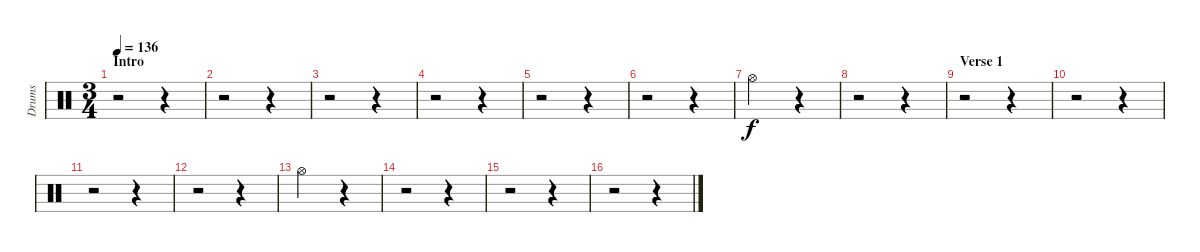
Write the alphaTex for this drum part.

\track ("Drums" "Drums") {instrument percussion}
\staff {score}
\articulation defaults
\ts (3 4)
\section ("" "Intro")
\tempo 136
\clef neutral
\ks c
r.2{dy f} r.4 |
r.2 r.4 |
r.2 r.4 |
r.2 r.4 |
r.2 r.4 |
r.2 r.4 |
"Hi-Hat (open)".2 r.4 |
r.2 r.4 |
\section ("" "Verse 1")
r.2 r.4 |
r.2 r.4 |
r.2 r.4 |
r.2 r.4 |
"Hi-Hat (open)".2 r.4 |
r.2 r.4 |
r.2 r.4 |
r.2 r.4
